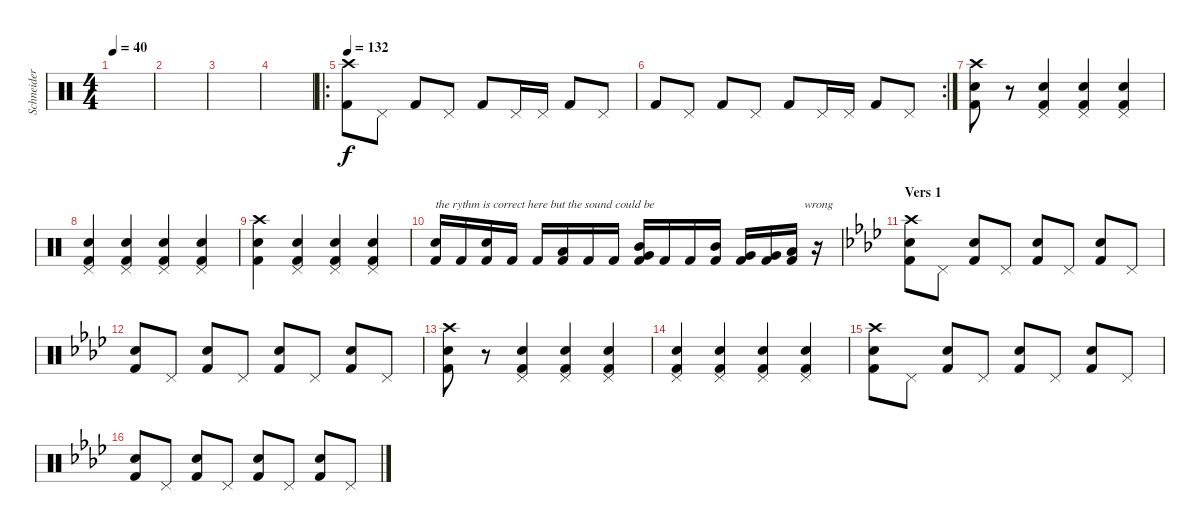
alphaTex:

\track ("Schneider" "Schneider") {instrument percussion}
\staff {score}
\articulation defaults
\ts (4 4)
\tempo 40
\tempo 132
\tempo 40
\clef neutral
\ks c
|
|
|
|
\ro
\tempo 132
("Crash high (hit)" "Kick (hit) 2").8 "Pedal Hi-Hat (hit)".8 "Kick (hit) 2".8 "Pedal Hi-Hat (hit)".8 "Kick (hit) 2".8 "Pedal Hi-Hat (hit)".16 "Pedal Hi-Hat (hit)".16 "Kick (hit) 2".8 "Pedal Hi-Hat (hit)".8 |
\rc 2 "Kick (hit) 2".8 "Pedal Hi-Hat (hit)".8 "Kick (hit) 2".8 "Pedal Hi-Hat (hit)".8 "Kick (hit) 2".8 "Pedal Hi-Hat (hit)".16 "Pedal Hi-Hat (hit)".16 "Kick (hit) 2".8 "Pedal Hi-Hat (hit)".8
|
("Crash high (hit)" "Snare (hit) 2" "Kick (hit) 2").8 r.8 ("Pedal Hi-Hat (hit)" "Snare (hit) 2" "Kick (hit) 2").4 ("Pedal Hi-Hat (hit)" "Snare (hit) 2" "Kick (hit) 2").4 ("Pedal Hi-Hat (hit)" "Snare (hit) 2" "Kick (hit) 2").4 |
("Pedal Hi-Hat (hit)" "Snare (hit) 2" "Kick (hit) 2").4 ("Pedal Hi-Hat (hit)" "Snare (hit) 2" "Kick (hit) 2").4 ("Pedal Hi-Hat (hit)" "Snare (hit) 2" "Kick (hit) 2").4 ("Pedal Hi-Hat (hit)" "Snare (hit) 2" "Kick (hit) 2").4 |
("Crash high (hit)" "Snare (hit) 2" "Kick (hit) 2").4 ("Pedal Hi-Hat (hit)" "Snare (hit) 2" "Kick (hit) 2").4 ("Pedal Hi-Hat (hit)" "Snare (hit) 2" "Kick (hit) 2").4 ("Pedal Hi-Hat (hit)" "Snare (hit) 2" "Kick (hit) 2").4 |
("Snare (hit) 2" "Kick (hit) 2").16{txt "the rythm is correct here but the sound could be"} "Kick (hit) 2".16 ("Snare (hit) 2" "Kick (hit) 2").16 "Kick (hit) 2".16 "Kick (hit) 2".16 ("Low Tom (hit)" "Kick (hit) 2").16 "Kick (hit) 2".16 "Kick (hit) 2".16 ("Mid Tom (hit)" "Very Low Tom (hit)" "Kick (hit) 2").16 "Kick (hit) 2".16 "Kick (hit) 2".16 ("Mid Tom (hit)" "Kick (hit) 2").16 ("Very Low Tom (hit)" "Kick (hit) 2").16 ("Very Low Tom (hit)" "Kick (hit) 2").16 ("Low Floor Tom (hit)" "Kick (hit) 2").16{txt "    wrong"} r.16 |
\section ("" "Vers 1")
\ks fminor
("Crash high (hit)" "Snare (hit) 2" "Kick (hit) 2").8 "Pedal Hi-Hat (hit)".8 ("Snare (hit) 2" "Kick (hit) 2").8 "Pedal Hi-Hat (hit)".8 ("Snare (hit) 2" "Kick (hit) 2").8 "Pedal Hi-Hat (hit)".8 ("Snare (hit) 2" "Kick (hit) 2").8 "Pedal Hi-Hat (hit)".8 |
("Snare (hit) 2" "Kick (hit) 2").8 "Pedal Hi-Hat (hit)".8 ("Snare (hit) 2" "Kick (hit) 2").8 "Pedal Hi-Hat (hit)".8 ("Snare (hit) 2" "Kick (hit) 2").8 "Pedal Hi-Hat (hit)".8 ("Snare (hit) 2" "Kick (hit) 2").8 "Pedal Hi-Hat (hit)".8 |
("Crash high (hit)" "Snare (hit) 2" "Kick (hit) 2").8 r.8 ("Pedal Hi-Hat (hit)" "Snare (hit) 2" "Kick (hit) 2").4 ("Pedal Hi-Hat (hit)" "Snare (hit) 2" "Kick (hit) 2").4 ("Pedal Hi-Hat (hit)" "Snare (hit) 2" "Kick (hit) 2").4 |
("Pedal Hi-Hat (hit)" "Snare (hit) 2" "Kick (hit) 2").4 ("Pedal Hi-Hat (hit)" "Snare (hit) 2" "Kick (hit) 2").4 ("Pedal Hi-Hat (hit)" "Snare (hit) 2" "Kick (hit) 2").4 ("Pedal Hi-Hat (hit)" "Snare (hit) 2" "Kick (hit) 2").4 |
("Crash high (hit)" "Snare (hit) 2" "Kick (hit) 2").8 "Pedal Hi-Hat (hit)".8 ("Snare (hit) 2" "Kick (hit) 2").8 "Pedal Hi-Hat (hit)".8 ("Snare (hit) 2" "Kick (hit) 2").8 "Pedal Hi-Hat (hit)".8 ("Snare (hit) 2" "Kick (hit) 2").8 "Pedal Hi-Hat (hit)".8 |
("Snare (hit) 2" "Kick (hit) 2").8 "Pedal Hi-Hat (hit)".8 ("Snare (hit) 2" "Kick (hit) 2").8 "Pedal Hi-Hat (hit)".8 ("Snare (hit) 2" "Kick (hit) 2").8 "Pedal Hi-Hat (hit)".8 ("Snare (hit) 2" "Kick (hit) 2").8 "Pedal Hi-Hat (hit)".8
